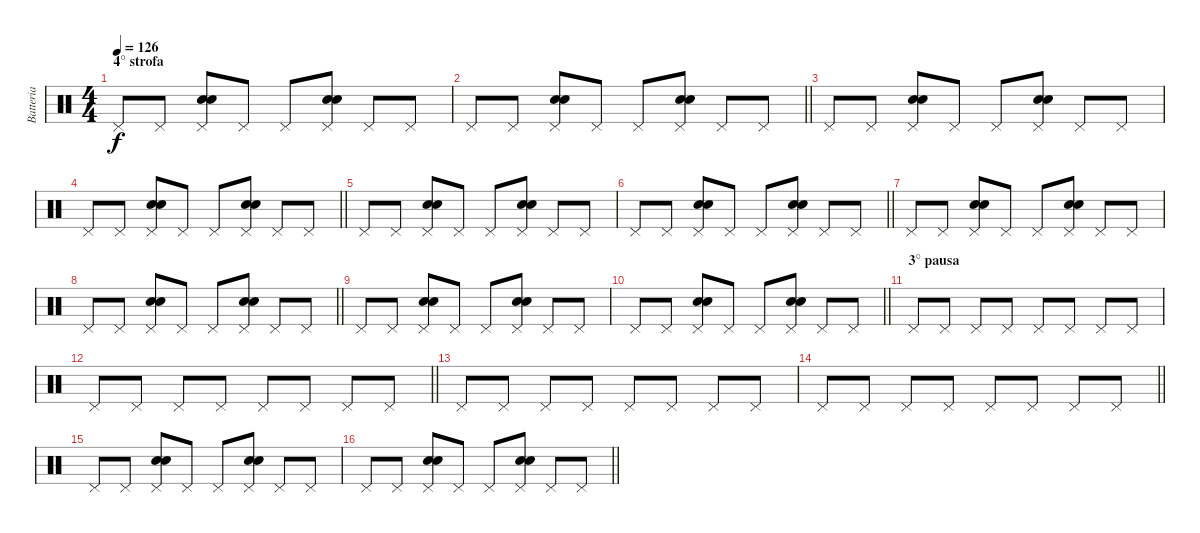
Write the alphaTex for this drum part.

\track ("Batteria" "Batteria") {instrument percussion}
\staff {score}
\articulation defaults
\ts (4 4)
\section ("" "4° strofa")
\tempo 126
\clef neutral
\ks c "Pedal Hi-Hat (hit)".8{dy f} "Pedal Hi-Hat (hit)".8
("Pedal Hi-Hat (hit)" "Snare (hit) 2" "Electric Snare (hit)").8 "Pedal Hi-Hat (hit)".8 "Pedal Hi-Hat (hit)".8 ("Pedal Hi-Hat (hit)" "Snare (hit) 2" "Electric Snare (hit)").8 "Pedal Hi-Hat (hit)".8 "Pedal Hi-Hat (hit)".8 |
\barLineRight lightlight "Pedal Hi-Hat (hit)".8 "Pedal Hi-Hat (hit)".8
("Pedal Hi-Hat (hit)" "Snare (hit) 2" "Electric Snare (hit)").8 "Pedal Hi-Hat (hit)".8 "Pedal Hi-Hat (hit)".8 ("Pedal Hi-Hat (hit)" "Snare (hit) 2" "Electric Snare (hit)").8 "Pedal Hi-Hat (hit)".8 "Pedal Hi-Hat (hit)".8 |
"Pedal Hi-Hat (hit)".8 "Pedal Hi-Hat (hit)".8 ("Pedal Hi-Hat (hit)" "Snare (hit) 2" "Electric Snare (hit)").8 "Pedal Hi-Hat (hit)".8 "Pedal Hi-Hat (hit)".8 ("Pedal Hi-Hat (hit)" "Snare (hit) 2" "Electric Snare (hit)").8 "Pedal Hi-Hat (hit)".8 "Pedal Hi-Hat (hit)".8 |
\barLineRight lightlight "Pedal Hi-Hat (hit)".8 "Pedal Hi-Hat (hit)".8
("Pedal Hi-Hat (hit)" "Snare (hit) 2" "Electric Snare (hit)").8 "Pedal Hi-Hat (hit)".8 "Pedal Hi-Hat (hit)".8 ("Pedal Hi-Hat (hit)" "Snare (hit) 2" "Electric Snare (hit)").8 "Pedal Hi-Hat (hit)".8 "Pedal Hi-Hat (hit)".8 |
"Pedal Hi-Hat (hit)".8 "Pedal Hi-Hat (hit)".8 ("Pedal Hi-Hat (hit)" "Snare (hit) 2" "Electric Snare (hit)").8 "Pedal Hi-Hat (hit)".8 "Pedal Hi-Hat (hit)".8 ("Pedal Hi-Hat (hit)" "Snare (hit) 2" "Electric Snare (hit)").8 "Pedal Hi-Hat (hit)".8 "Pedal Hi-Hat (hit)".8 |
\barLineRight lightlight "Pedal Hi-Hat (hit)".8 "Pedal Hi-Hat (hit)".8
("Pedal Hi-Hat (hit)" "Snare (hit) 2" "Electric Snare (hit)").8 "Pedal Hi-Hat (hit)".8 "Pedal Hi-Hat (hit)".8 ("Pedal Hi-Hat (hit)" "Snare (hit) 2" "Electric Snare (hit)").8 "Pedal Hi-Hat (hit)".8 "Pedal Hi-Hat (hit)".8 |
"Pedal Hi-Hat (hit)".8 "Pedal Hi-Hat (hit)".8 ("Pedal Hi-Hat (hit)" "Snare (hit) 2" "Electric Snare (hit)").8 "Pedal Hi-Hat (hit)".8 "Pedal Hi-Hat (hit)".8 ("Pedal Hi-Hat (hit)" "Snare (hit) 2" "Electric Snare (hit)").8 "Pedal Hi-Hat (hit)".8 "Pedal Hi-Hat (hit)".8 |
\barLineRight lightlight "Pedal Hi-Hat (hit)".8 "Pedal Hi-Hat (hit)".8
("Pedal Hi-Hat (hit)" "Snare (hit) 2" "Electric Snare (hit)").8 "Pedal Hi-Hat (hit)".8 "Pedal Hi-Hat (hit)".8 ("Pedal Hi-Hat (hit)" "Snare (hit) 2" "Electric Snare (hit)").8 "Pedal Hi-Hat (hit)".8 "Pedal Hi-Hat (hit)".8 |
"Pedal Hi-Hat (hit)".8 "Pedal Hi-Hat (hit)".8 ("Pedal Hi-Hat (hit)" "Snare (hit) 2" "Electric Snare (hit)").8 "Pedal Hi-Hat (hit)".8 "Pedal Hi-Hat (hit)".8 ("Pedal Hi-Hat (hit)" "Snare (hit) 2" "Electric Snare (hit)").8 "Pedal Hi-Hat (hit)".8 "Pedal Hi-Hat (hit)".8 |
\barLineRight lightlight "Pedal Hi-Hat (hit)".8 "Pedal Hi-Hat (hit)".8
("Pedal Hi-Hat (hit)" "Snare (hit) 2" "Electric Snare (hit)").8 "Pedal Hi-Hat (hit)".8 "Pedal Hi-Hat (hit)".8 ("Pedal Hi-Hat (hit)" "Snare (hit) 2" "Electric Snare (hit)").8 "Pedal Hi-Hat (hit)".8 "Pedal Hi-Hat (hit)".8 |
\section ("" "3° pausa")
"Pedal Hi-Hat (hit)".8 "Pedal Hi-Hat (hit)".8 "Pedal Hi-Hat (hit)".8 "Pedal Hi-Hat (hit)".8 "Pedal Hi-Hat (hit)".8 "Pedal Hi-Hat (hit)".8 "Pedal Hi-Hat (hit)".8 "Pedal Hi-Hat (hit)".8 |
\barLineRight lightlight "Pedal Hi-Hat (hit)".8 "Pedal Hi-Hat (hit)".8 "Pedal Hi-Hat (hit)".8 "Pedal Hi-Hat (hit)".8 "Pedal Hi-Hat (hit)".8 "Pedal Hi-Hat (hit)".8 "Pedal Hi-Hat (hit)".8 "Pedal Hi-Hat (hit)".8
|
"Pedal Hi-Hat (hit)".8 "Pedal Hi-Hat (hit)".8 "Pedal Hi-Hat (hit)".8 "Pedal Hi-Hat (hit)".8 "Pedal Hi-Hat (hit)".8 "Pedal Hi-Hat (hit)".8 "Pedal Hi-Hat (hit)".8 "Pedal Hi-Hat (hit)".8 |
\barLineRight lightlight "Pedal Hi-Hat (hit)".8 "Pedal Hi-Hat (hit)".8 "Pedal Hi-Hat (hit)".8 "Pedal Hi-Hat (hit)".8 "Pedal Hi-Hat (hit)".8 "Pedal Hi-Hat (hit)".8 "Pedal Hi-Hat (hit)".8 "Pedal Hi-Hat (hit)".8
|
"Pedal Hi-Hat (hit)".8 "Pedal Hi-Hat (hit)".8 ("Pedal Hi-Hat (hit)" "Snare (hit) 2" "Electric Snare (hit)").8 "Pedal Hi-Hat (hit)".8 "Pedal Hi-Hat (hit)".8 ("Pedal Hi-Hat (hit)" "Snare (hit) 2" "Electric Snare (hit)").8 "Pedal Hi-Hat (hit)".8 "Pedal Hi-Hat (hit)".8 |
\barLineRight lightlight "Pedal Hi-Hat (hit)".8 "Pedal Hi-Hat (hit)".8
("Pedal Hi-Hat (hit)" "Snare (hit) 2" "Electric Snare (hit)").8 "Pedal Hi-Hat (hit)".8 "Pedal Hi-Hat (hit)".8 ("Pedal Hi-Hat (hit)" "Snare (hit) 2" "Electric Snare (hit)").8 "Pedal Hi-Hat (hit)".8 "Pedal Hi-Hat (hit)".8
